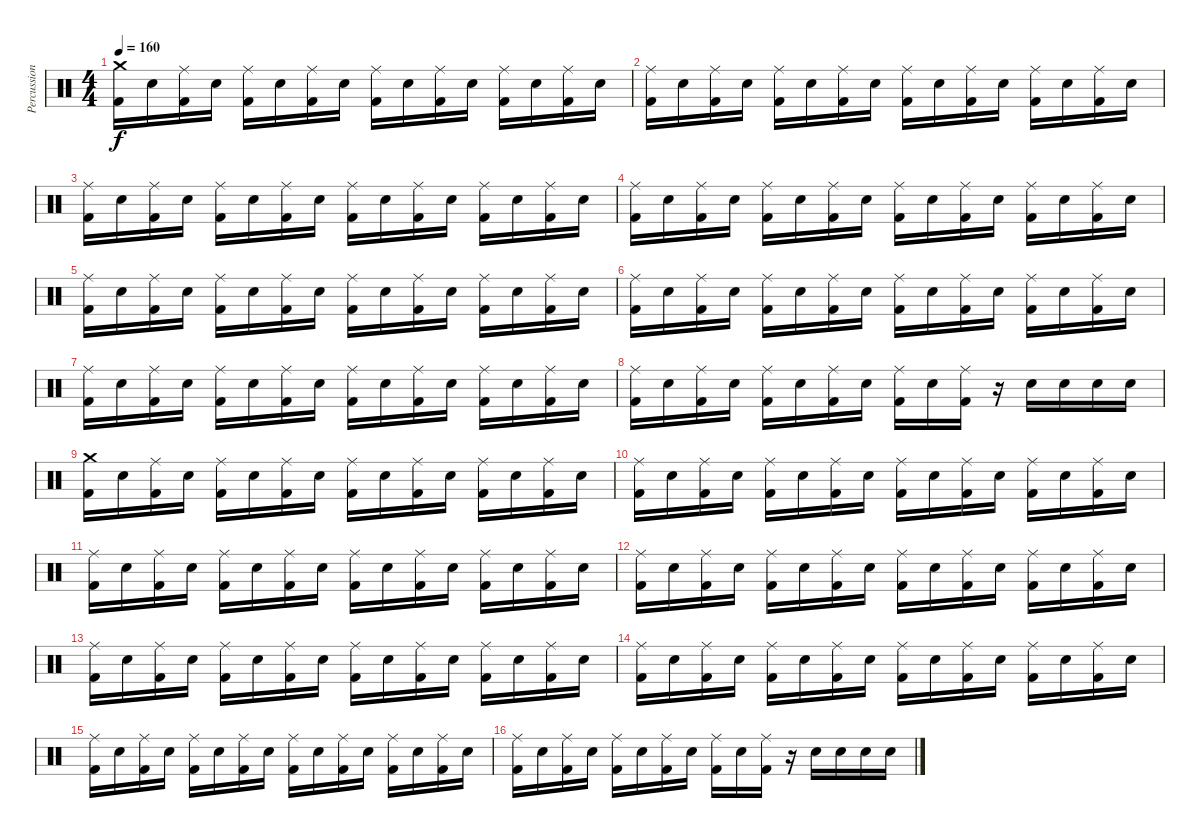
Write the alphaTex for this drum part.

\track ("Percussions" "Percussion") {instrument percussion}
\staff {score}
\articulation defaults
\ts (4 4)
\tempo 160
\clef neutral
\ks c
("Crash medium (hit)" "Kick (hit) 2").16{dy f} "Snare (hit) 2".16 ("Ride (middle)" "Kick (hit) 2").16 "Snare (hit) 2".16 ("Ride (middle)" "Kick (hit) 2").16 "Snare (hit) 2".16 ("Ride (middle)" "Kick (hit) 2").16 "Snare (hit) 2".16 ("Ride (middle)" "Kick (hit) 2").16 "Snare (hit) 2".16 ("Ride (middle)" "Kick (hit) 2").16 "Snare (hit) 2".16 ("Ride (middle)" "Kick (hit) 2").16 "Snare (hit) 2".16 ("Ride (middle)" "Kick (hit) 2").16 "Snare (hit) 2".16 |
("Ride (middle)" "Kick (hit) 2").16 "Snare (hit) 2".16 ("Ride (middle)" "Kick (hit) 2").16 "Snare (hit) 2".16 ("Ride (middle)" "Kick (hit) 2").16 "Snare (hit) 2".16 ("Ride (middle)" "Kick (hit) 2").16 "Snare (hit) 2".16 ("Ride (middle)" "Kick (hit) 2").16 "Snare (hit) 2".16 ("Ride (middle)" "Kick (hit) 2").16 "Snare (hit) 2".16 ("Ride (middle)" "Kick (hit) 2").16 "Snare (hit) 2".16 ("Ride (middle)" "Kick (hit) 2").16 "Snare (hit) 2".16 |
("Ride (middle)" "Kick (hit) 2").16 "Snare (hit) 2".16 ("Ride (middle)" "Kick (hit) 2").16 "Snare (hit) 2".16 ("Ride (middle)" "Kick (hit) 2").16 "Snare (hit) 2".16 ("Ride (middle)" "Kick (hit) 2").16 "Snare (hit) 2".16 ("Ride (middle)" "Kick (hit) 2").16 "Snare (hit) 2".16 ("Ride (middle)" "Kick (hit) 2").16 "Snare (hit) 2".16 ("Ride (middle)" "Kick (hit) 2").16 "Snare (hit) 2".16 ("Ride (middle)" "Kick (hit) 2").16 "Snare (hit) 2".16 |
("Ride (middle)" "Kick (hit) 2").16 "Snare (hit) 2".16 ("Ride (middle)" "Kick (hit) 2").16 "Snare (hit) 2".16 ("Ride (middle)" "Kick (hit) 2").16 "Snare (hit) 2".16 ("Ride (middle)" "Kick (hit) 2").16 "Snare (hit) 2".16 ("Ride (middle)" "Kick (hit) 2").16 "Snare (hit) 2".16 ("Ride (middle)" "Kick (hit) 2").16 "Snare (hit) 2".16 ("Ride (middle)" "Kick (hit) 2").16 "Snare (hit) 2".16 ("Ride (middle)" "Kick (hit) 2").16 "Snare (hit) 2".16 |
("Ride (middle)" "Kick (hit) 2").16 "Snare (hit) 2".16 ("Ride (middle)" "Kick (hit) 2").16 "Snare (hit) 2".16 ("Ride (middle)" "Kick (hit) 2").16 "Snare (hit) 2".16 ("Ride (middle)" "Kick (hit) 2").16 "Snare (hit) 2".16 ("Ride (middle)" "Kick (hit) 2").16 "Snare (hit) 2".16 ("Ride (middle)" "Kick (hit) 2").16 "Snare (hit) 2".16 ("Ride (middle)" "Kick (hit) 2").16 "Snare (hit) 2".16 ("Ride (middle)" "Kick (hit) 2").16 "Snare (hit) 2".16 |
("Ride (middle)" "Kick (hit) 2").16 "Snare (hit) 2".16 ("Ride (middle)" "Kick (hit) 2").16 "Snare (hit) 2".16 ("Ride (middle)" "Kick (hit) 2").16 "Snare (hit) 2".16 ("Ride (middle)" "Kick (hit) 2").16 "Snare (hit) 2".16 ("Ride (middle)" "Kick (hit) 2").16 "Snare (hit) 2".16 ("Ride (middle)" "Kick (hit) 2").16 "Snare (hit) 2".16 ("Ride (middle)" "Kick (hit) 2").16 "Snare (hit) 2".16 ("Ride (middle)" "Kick (hit) 2").16 "Snare (hit) 2".16 |
("Ride (middle)" "Kick (hit) 2").16 "Snare (hit) 2".16 ("Ride (middle)" "Kick (hit) 2").16 "Snare (hit) 2".16 ("Ride (middle)" "Kick (hit) 2").16 "Snare (hit) 2".16 ("Ride (middle)" "Kick (hit) 2").16 "Snare (hit) 2".16 ("Ride (middle)" "Kick (hit) 2").16 "Snare (hit) 2".16 ("Ride (middle)" "Kick (hit) 2").16 "Snare (hit) 2".16 ("Ride (middle)" "Kick (hit) 2").16 "Snare (hit) 2".16 ("Ride (middle)" "Kick (hit) 2").16 "Snare (hit) 2".16 |
("Ride (middle)" "Kick (hit) 2").16 "Snare (hit) 2".16 ("Ride (middle)" "Kick (hit) 2").16 "Snare (hit) 2".16 ("Ride (middle)" "Kick (hit) 2").16 "Snare (hit) 2".16 ("Ride (middle)" "Kick (hit) 2").16 "Snare (hit) 2".16 ("Ride (middle)" "Kick (hit) 2").16 "Snare (hit) 2".16 ("Ride (middle)" "Kick (hit) 2").16 r.16 "Snare (hit) 2".16 "Snare (hit) 2".16 "Snare (hit) 2".16 "Snare (hit) 2".16 |
("Crash medium (hit)" "Kick (hit) 2").16 "Snare (hit) 2".16 ("Ride (middle)" "Kick (hit) 2").16 "Snare (hit) 2".16 ("Ride (middle)" "Kick (hit) 2").16 "Snare (hit) 2".16 ("Ride (middle)" "Kick (hit) 2").16 "Snare (hit) 2".16 ("Ride (middle)" "Kick (hit) 2").16 "Snare (hit) 2".16 ("Ride (middle)" "Kick (hit) 2").16 "Snare (hit) 2".16 ("Ride (middle)" "Kick (hit) 2").16 "Snare (hit) 2".16 ("Ride (middle)" "Kick (hit) 2").16 "Snare (hit) 2".16 |
("Ride (middle)" "Kick (hit) 2").16 "Snare (hit) 2".16 ("Ride (middle)" "Kick (hit) 2").16 "Snare (hit) 2".16 ("Ride (middle)" "Kick (hit) 2").16 "Snare (hit) 2".16 ("Ride (middle)" "Kick (hit) 2").16 "Snare (hit) 2".16 ("Ride (middle)" "Kick (hit) 2").16 "Snare (hit) 2".16 ("Ride (middle)" "Kick (hit) 2").16 "Snare (hit) 2".16 ("Ride (middle)" "Kick (hit) 2").16 "Snare (hit) 2".16 ("Ride (middle)" "Kick (hit) 2").16 "Snare (hit) 2".16 |
("Ride (middle)" "Kick (hit) 2").16 "Snare (hit) 2".16 ("Ride (middle)" "Kick (hit) 2").16 "Snare (hit) 2".16 ("Ride (middle)" "Kick (hit) 2").16 "Snare (hit) 2".16 ("Ride (middle)" "Kick (hit) 2").16 "Snare (hit) 2".16 ("Ride (middle)" "Kick (hit) 2").16 "Snare (hit) 2".16 ("Ride (middle)" "Kick (hit) 2").16 "Snare (hit) 2".16 ("Ride (middle)" "Kick (hit) 2").16 "Snare (hit) 2".16 ("Ride (middle)" "Kick (hit) 2").16 "Snare (hit) 2".16 |
("Ride (middle)" "Kick (hit) 2").16 "Snare (hit) 2".16 ("Ride (middle)" "Kick (hit) 2").16 "Snare (hit) 2".16 ("Ride (middle)" "Kick (hit) 2").16 "Snare (hit) 2".16 ("Ride (middle)" "Kick (hit) 2").16 "Snare (hit) 2".16 ("Ride (middle)" "Kick (hit) 2").16 "Snare (hit) 2".16 ("Ride (middle)" "Kick (hit) 2").16 "Snare (hit) 2".16 ("Ride (middle)" "Kick (hit) 2").16 "Snare (hit) 2".16 ("Ride (middle)" "Kick (hit) 2").16 "Snare (hit) 2".16 |
("Ride (middle)" "Kick (hit) 2").16 "Snare (hit) 2".16 ("Ride (middle)" "Kick (hit) 2").16 "Snare (hit) 2".16 ("Ride (middle)" "Kick (hit) 2").16 "Snare (hit) 2".16 ("Ride (middle)" "Kick (hit) 2").16 "Snare (hit) 2".16 ("Ride (middle)" "Kick (hit) 2").16 "Snare (hit) 2".16 ("Ride (middle)" "Kick (hit) 2").16 "Snare (hit) 2".16 ("Ride (middle)" "Kick (hit) 2").16 "Snare (hit) 2".16 ("Ride (middle)" "Kick (hit) 2").16 "Snare (hit) 2".16 |
("Ride (middle)" "Kick (hit) 2").16 "Snare (hit) 2".16 ("Ride (middle)" "Kick (hit) 2").16 "Snare (hit) 2".16 ("Ride (middle)" "Kick (hit) 2").16 "Snare (hit) 2".16 ("Ride (middle)" "Kick (hit) 2").16 "Snare (hit) 2".16 ("Ride (middle)" "Kick (hit) 2").16 "Snare (hit) 2".16 ("Ride (middle)" "Kick (hit) 2").16 "Snare (hit) 2".16 ("Ride (middle)" "Kick (hit) 2").16 "Snare (hit) 2".16 ("Ride (middle)" "Kick (hit) 2").16 "Snare (hit) 2".16 |
("Ride (middle)" "Kick (hit) 2").16 "Snare (hit) 2".16 ("Ride (middle)" "Kick (hit) 2").16 "Snare (hit) 2".16 ("Ride (middle)" "Kick (hit) 2").16 "Snare (hit) 2".16 ("Ride (middle)" "Kick (hit) 2").16 "Snare (hit) 2".16 ("Ride (middle)" "Kick (hit) 2").16 "Snare (hit) 2".16 ("Ride (middle)" "Kick (hit) 2").16 "Snare (hit) 2".16 ("Ride (middle)" "Kick (hit) 2").16 "Snare (hit) 2".16 ("Ride (middle)" "Kick (hit) 2").16 "Snare (hit) 2".16 |
("Ride (middle)" "Kick (hit) 2").16 "Snare (hit) 2".16 ("Ride (middle)" "Kick (hit) 2").16 "Snare (hit) 2".16 ("Ride (middle)" "Kick (hit) 2").16 "Snare (hit) 2".16 ("Ride (middle)" "Kick (hit) 2").16 "Snare (hit) 2".16 ("Ride (middle)" "Kick (hit) 2").16 "Snare (hit) 2".16 ("Ride (middle)" "Kick (hit) 2").16 r.16 "Snare (hit) 2".16 "Snare (hit) 2".16 "Snare (hit) 2".16 "Snare (hit) 2".16
